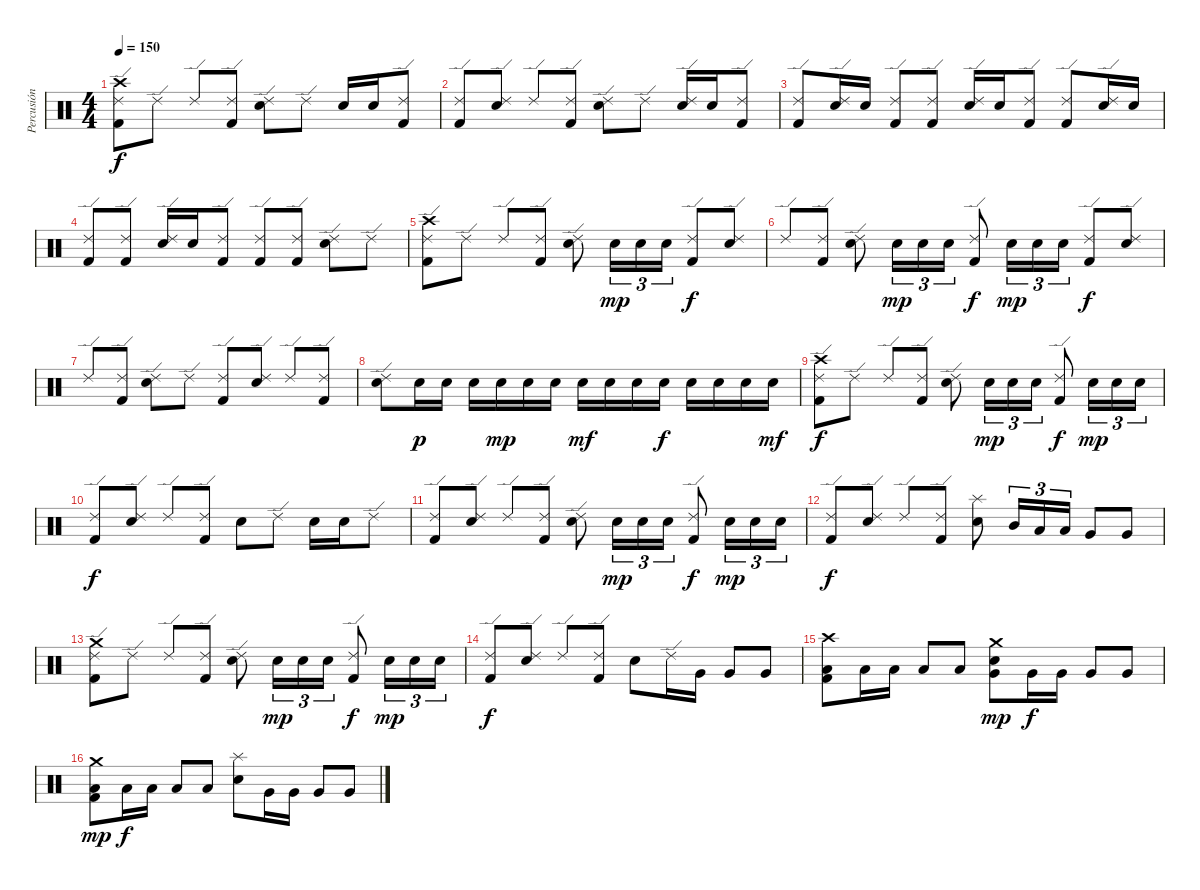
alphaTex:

\track ("Percusión" "Percusión") {instrument percussion}
\staff {score}
\articulation defaults
\ts (4 4)
\tempo 150
\clef neutral
\ks c
("Crash high (hit)" "Ride (edge) 2" "Kick (hit) 2").8{dy f} "Ride (edge) 2".8 "Ride (edge) 2".8 ("Ride (edge) 2" "Kick (hit) 2").8 ("Ride (edge) 2" "Snare (hit) 2").8 "Ride (edge) 2".8 "Snare (hit) 2".16 "Snare (hit) 2".16 ("Ride (edge) 2" "Kick (hit) 2").8 |
("Ride (edge) 2" "Kick (hit) 2").8 ("Ride (edge) 2" "Snare (hit) 2").8 "Ride (edge) 2".8 ("Ride (edge) 2" "Kick (hit) 2").8 ("Ride (edge) 2" "Snare (hit) 2").8 "Ride (edge) 2".8 ("Ride (edge) 2" "Snare (hit) 2").16 "Snare (hit) 2".16 ("Ride (edge) 2" "Kick (hit) 2").8 |
("Ride (edge) 2" "Kick (hit) 2").8 ("Ride (edge) 2" "Snare (hit) 2").16 "Snare (hit) 2".16 ("Ride (edge) 2" "Kick (hit) 2").8 ("Ride (edge) 2" "Kick (hit) 2").8 ("Ride (edge) 2" "Snare (hit) 2").16 "Snare (hit) 2".16 ("Ride (edge) 2" "Kick (hit) 2").8 ("Ride (edge) 2" "Kick (hit) 2").8 ("Ride (edge) 2" "Snare (hit) 2").16 "Snare (hit) 2".16 |
("Ride (edge) 2" "Kick (hit) 2").8 ("Ride (edge) 2" "Kick (hit) 2").8 ("Ride (edge) 2" "Snare (hit) 2").16 "Snare (hit) 2".16 ("Ride (edge) 2" "Kick (hit) 2").8 ("Ride (edge) 2" "Kick (hit) 2").8 ("Ride (edge) 2" "Kick (hit) 2").8 ("Ride (edge) 2" "Snare (hit) 2").8 "Ride (edge) 2".8 |
("Crash high (hit)" "Ride (edge) 2" "Kick (hit) 2").8 "Ride (edge) 2".8 "Ride (edge) 2".8 ("Ride (edge) 2" "Kick (hit) 2").8 ("Ride (edge) 2" "Snare (hit) 2").8 "Snare (hit) 2".16{tu (3 2) dy mp} "Snare (hit) 2".16{tu (3 2)} "Snare (hit) 2".16{tu (3 2)} ("Ride (edge) 2" "Kick (hit) 2").8{dy f} ("Ride (edge) 2" "Snare (hit) 2").8 |
"Ride (edge) 2".8 ("Ride (edge) 2" "Kick (hit) 2").8 ("Ride (edge) 2" "Snare (hit) 2").8 "Snare (hit) 2".16{tu (3 2) dy mp} "Snare (hit) 2".16{tu (3 2)} "Snare (hit) 2".16{tu (3 2)} ("Ride (edge) 2" "Kick (hit) 2").8{dy f} "Snare (hit) 2".16{tu (3 2) dy mp} "Snare (hit) 2".16{tu (3 2)} "Snare (hit) 2".16{tu (3 2)} ("Ride (edge) 2" "Kick (hit) 2").8{dy f} ("Ride (edge) 2" "Snare (hit) 2").8 |
"Ride (edge) 2".8 ("Ride (edge) 2" "Kick (hit) 2").8 ("Ride (edge) 2" "Snare (hit) 2").8 "Ride (edge) 2".8 ("Ride (edge) 2" "Kick (hit) 2").8 ("Ride (edge) 2" "Snare (hit) 2").8 "Ride (edge) 2".8 ("Ride (edge) 2" "Kick (hit) 2").8 |
("Ride (edge) 2" "Snare (hit) 2").8 "Snare (hit) 2".16{dy p} "Snare (hit) 2".16 "Snare (hit) 2".16 "Snare (hit) 2".16{dy mp} "Snare (hit) 2".16 "Snare (hit) 2".16 "Snare (hit) 2".16{dy mf} "Snare (hit) 2".16 "Snare (hit) 2".16 "Snare (hit) 2".16{dy f} "Snare (hit) 2".16 "Snare (hit) 2".16 "Snare (hit) 2".16 "Snare (hit) 2".16{dy mf} |
("Crash high (hit)" "Ride (edge) 2" "Kick (hit) 2").8{dy f} "Ride (edge) 2".8 "Ride (edge) 2".8 ("Ride (edge) 2" "Kick (hit) 2").8 ("Ride (edge) 2" "Snare (hit) 2").8 "Snare (hit) 2".16{tu (3 2) dy mp} "Snare (hit) 2".16{tu (3 2)} "Snare (hit) 2".16{tu (3 2)} ("Ride (edge) 2" "Kick (hit) 2").8{dy f} "Snare (hit) 2".16{tu (3 2) dy mp} "Snare (hit) 2".16{tu (3 2)} "Snare (hit) 2".16{tu (3 2)} |
("Ride (edge) 2" "Kick (hit) 2").8{dy f} ("Ride (edge) 2" "Snare (hit) 2").8 "Ride (edge) 2".8 ("Ride (edge) 2" "Kick (hit) 2").8 "Snare (hit) 2".8 "Ride (edge) 2".8 "Snare (hit) 2".16 "Snare (hit) 2".16 "Ride (edge) 2".8 |
("Ride (edge) 2" "Kick (hit) 2").8 ("Ride (edge) 2" "Snare (hit) 2").8 "Ride (edge) 2".8 ("Ride (edge) 2" "Kick (hit) 2").8 ("Ride (edge) 2" "Snare (hit) 2").8 "Snare (hit) 2".16{tu (3 2) dy mp} "Snare (hit) 2".16{tu (3 2)} "Snare (hit) 2".16{tu (3 2)} ("Ride (edge) 2" "Kick (hit) 2").8{dy f} "Snare (hit) 2".16{tu (3 2) dy mp} "Snare (hit) 2".16{tu (3 2)} "Snare (hit) 2".16{tu (3 2)} |
("Ride (edge) 2" "Kick (hit) 2").8{dy f} ("Ride (edge) 2" "Snare (hit) 2").8 "Ride (edge) 2".8 ("Ride (edge) 2" "Kick (hit) 2").8 ("Splash (hit)" "Snare (hit) 2").8 "Mid Tom (hit)".16{tu (3 2)} "Low Tom (hit)".16{tu (3 2)} "Low Tom (hit)".16{tu (3 2)} "Very Low Tom (hit)".8 "Very Low Tom (hit)".8 |
("Crash medium (hit)" "Ride (edge) 2" "Kick (hit) 2").8 "Ride (edge) 2".8 "Ride (edge) 2".8 ("Ride (edge) 2" "Kick (hit) 2").8 ("Ride (edge) 2" "Snare (hit) 2").8 "Snare (hit) 2".16{tu (3 2) dy mp} "Snare (hit) 2".16{tu (3 2)} "Snare (hit) 2".16{tu (3 2)} ("Ride (edge) 2" "Kick (hit) 2").8{dy f} "Snare (hit) 2".16{tu (3 2) dy mp} "Snare (hit) 2".16{tu (3 2)} "Snare (hit) 2".16{tu (3 2)} |
("Ride (edge) 2" "Kick (hit) 2").8{dy f} ("Ride (edge) 2" "Snare (hit) 2").8 "Ride (edge) 2".8 ("Ride (edge) 2" "Kick (hit) 2").8 "Snare (hit) 2".8 "Ride (edge) 2".16 "Very Low Tom (hit)".16 "Very Low Tom (hit)".8 "Very Low Tom (hit)".8 |
("Crash high (hit)" "Low Tom (hit)" "Kick (hit) 2").8 "Low Tom (hit)".16 "Low Tom (hit)".16 "Low Tom (hit)".8 "Low Tom (hit)".8 ("Crash medium (hit)" "Very Low Tom (hit)" "Snare (hit) 2").8{dy mp} "Very Low Tom (hit)".16{dy f} "Very Low Tom (hit)".16 "Very Low Tom (hit)".8 "Very Low Tom (hit)".8 |
("Crash medium (hit)" "Low Tom (hit)" "Kick (hit) 2").8{dy mp} "Low Tom (hit)".16{dy f} "Low Tom (hit)".16 "Low Tom (hit)".8 "Low Tom (hit)".8 ("Splash (hit)" "Snare (hit) 2").8 "Very Low Tom (hit)".16 "Very Low Tom (hit)".16 "Very Low Tom (hit)".8 "Very Low Tom (hit)".8
